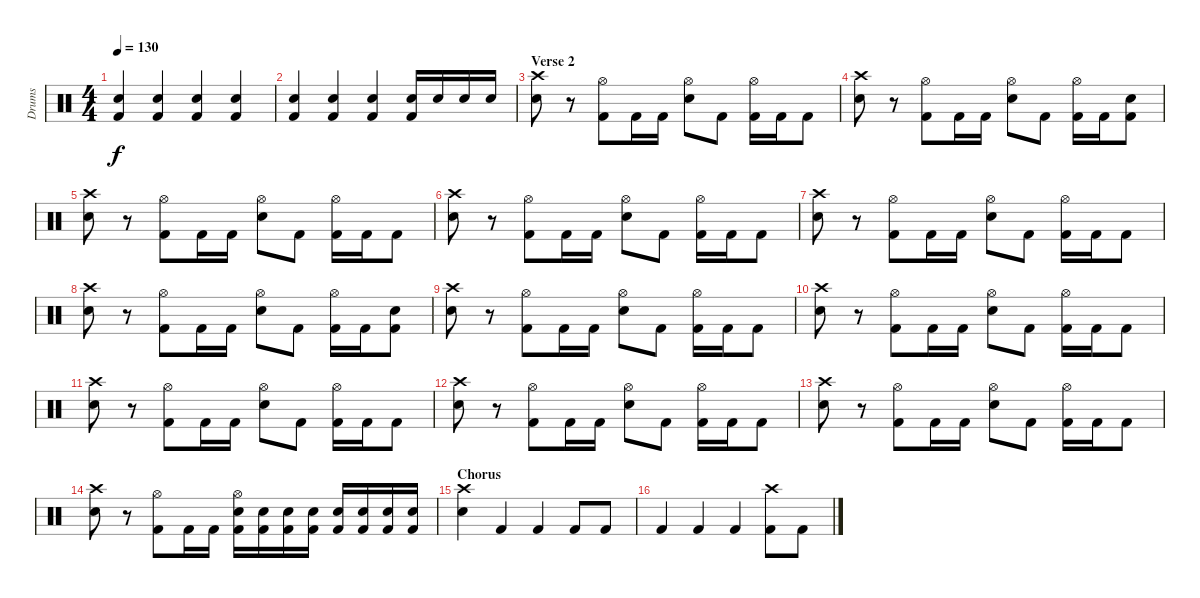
\track ("Drums" "Drums") {instrument percussion}
\staff {score}
\articulation defaults
\ts (4 4)
\tempo 130
\clef neutral
\ks c
("Electric Snare (hit)" "Kick (hit) 2").4{dy f} ("Electric Snare (hit)" "Kick (hit) 2").4 ("Electric Snare (hit)" "Kick (hit) 2").4 ("Electric Snare (hit)" "Kick (hit) 2").4 |
("Electric Snare (hit)" "Kick (hit) 2").4 ("Electric Snare (hit)" "Kick (hit) 2").4 ("Electric Snare (hit)" "Kick (hit) 2").4 ("Electric Snare (hit)" "Kick (hit) 2").16 "Electric Snare (hit)".16 "Electric Snare (hit)".16 "Electric Snare (hit)".16 |
\section ("" "Verse 2")
("Crash high (hit)" "Electric Snare (hit)").8 r.8 ("Hi-Hat (open)" "Kick (hit) 2").8 "Kick (hit) 2".16 "Kick (hit) 2".16 ("Hi-Hat (open)" "Electric Snare (hit)").8 "Kick (hit) 2".8 ("Hi-Hat (open)" "Kick (hit) 2").16 "Kick (hit) 2".16 "Kick (hit) 2".8 |
("Crash high (hit)" "Electric Snare (hit)").8 r.8 ("Hi-Hat (open)" "Kick (hit) 2").8 "Kick (hit) 2".16 "Kick (hit) 2".16 ("Hi-Hat (open)" "Electric Snare (hit)").8 "Kick (hit) 2".8 ("Hi-Hat (open)" "Kick (hit) 2").16 "Kick (hit) 2".16 ("Electric Snare (hit)" "Kick (hit) 2").8 |
("Crash high (hit)" "Electric Snare (hit)").8 r.8 ("Hi-Hat (open)" "Kick (hit) 2").8 "Kick (hit) 2".16 "Kick (hit) 2".16 ("Hi-Hat (open)" "Electric Snare (hit)").8 "Kick (hit) 2".8 ("Hi-Hat (open)" "Kick (hit) 2").16 "Kick (hit) 2".16 "Kick (hit) 2".8 |
("Crash high (hit)" "Electric Snare (hit)").8 r.8 ("Hi-Hat (open)" "Kick (hit) 2").8 "Kick (hit) 2".16 "Kick (hit) 2".16 ("Hi-Hat (open)" "Electric Snare (hit)").8 "Kick (hit) 2".8 ("Hi-Hat (open)" "Kick (hit) 2").16 "Kick (hit) 2".16 "Kick (hit) 2".8 |
("Crash high (hit)" "Electric Snare (hit)").8 r.8 ("Hi-Hat (open)" "Kick (hit) 2").8 "Kick (hit) 2".16 "Kick (hit) 2".16 ("Hi-Hat (open)" "Electric Snare (hit)").8 "Kick (hit) 2".8 ("Hi-Hat (open)" "Kick (hit) 2").16 "Kick (hit) 2".16 "Kick (hit) 2".8 |
("Crash high (hit)" "Electric Snare (hit)").8 r.8 ("Hi-Hat (open)" "Kick (hit) 2").8 "Kick (hit) 2".16 "Kick (hit) 2".16 ("Hi-Hat (open)" "Electric Snare (hit)").8 "Kick (hit) 2".8 ("Hi-Hat (open)" "Kick (hit) 2").16 "Kick (hit) 2".16 ("Electric Snare (hit)" "Kick (hit) 2").8 |
("Crash high (hit)" "Electric Snare (hit)").8 r.8 ("Hi-Hat (open)" "Kick (hit) 2").8 "Kick (hit) 2".16 "Kick (hit) 2".16 ("Hi-Hat (open)" "Electric Snare (hit)").8 "Kick (hit) 2".8 ("Hi-Hat (open)" "Kick (hit) 2").16 "Kick (hit) 2".16 "Kick (hit) 2".8 |
("Crash high (hit)" "Electric Snare (hit)").8 r.8 ("Hi-Hat (open)" "Kick (hit) 2").8 "Kick (hit) 2".16 "Kick (hit) 2".16 ("Hi-Hat (open)" "Electric Snare (hit)").8 "Kick (hit) 2".8 ("Hi-Hat (open)" "Kick (hit) 2").16 "Kick (hit) 2".16 "Kick (hit) 2".8 |
("Crash high (hit)" "Electric Snare (hit)").8 r.8 ("Hi-Hat (open)" "Kick (hit) 2").8 "Kick (hit) 2".16 "Kick (hit) 2".16 ("Hi-Hat (open)" "Electric Snare (hit)").8 "Kick (hit) 2".8 ("Hi-Hat (open)" "Kick (hit) 2").16 "Kick (hit) 2".16 "Kick (hit) 2".8 |
("Crash high (hit)" "Electric Snare (hit)").8 r.8 ("Hi-Hat (open)" "Kick (hit) 2").8 "Kick (hit) 2".16 "Kick (hit) 2".16 ("Hi-Hat (open)" "Electric Snare (hit)").8 "Kick (hit) 2".8 ("Hi-Hat (open)" "Kick (hit) 2").16 "Kick (hit) 2".16 "Kick (hit) 2".8 |
("Crash high (hit)" "Electric Snare (hit)").8 r.8 ("Hi-Hat (open)" "Kick (hit) 2").8 "Kick (hit) 2".16 "Kick (hit) 2".16 ("Hi-Hat (open)" "Electric Snare (hit)").8 "Kick (hit) 2".8 ("Hi-Hat (open)" "Kick (hit) 2").16 "Kick (hit) 2".16 "Kick (hit) 2".8 |
("Crash high (hit)" "Electric Snare (hit)").8 r.8 ("Hi-Hat (open)" "Kick (hit) 2").8 "Kick (hit) 2".16 "Kick (hit) 2".16 ("Hi-Hat (open)" "Electric Snare (hit)" "Kick (hit) 2").16 ("Electric Snare (hit)" "Kick (hit) 2").16 ("Electric Snare (hit)" "Kick (hit) 2").16 ("Electric Snare (hit)" "Kick (hit) 2").16 ("Electric Snare (hit)" "Kick (hit) 2").16 ("Electric Snare (hit)" "Kick (hit) 2").16 ("Electric Snare (hit)" "Kick (hit) 2").16 ("Electric Snare (hit)" "Kick (hit) 2").16 |
\section ("" "Chorus")
("Crash high (hit)" "Electric Snare (hit)").4 "Kick (hit) 2".4 "Kick (hit) 2".4 "Kick (hit) 2".8 "Kick (hit) 2".8 |
"Kick (hit) 2".4 "Kick (hit) 2".4 "Kick (hit) 2".4 ("Crash high (hit)" "Kick (hit) 2").8 "Kick (hit) 2".8
